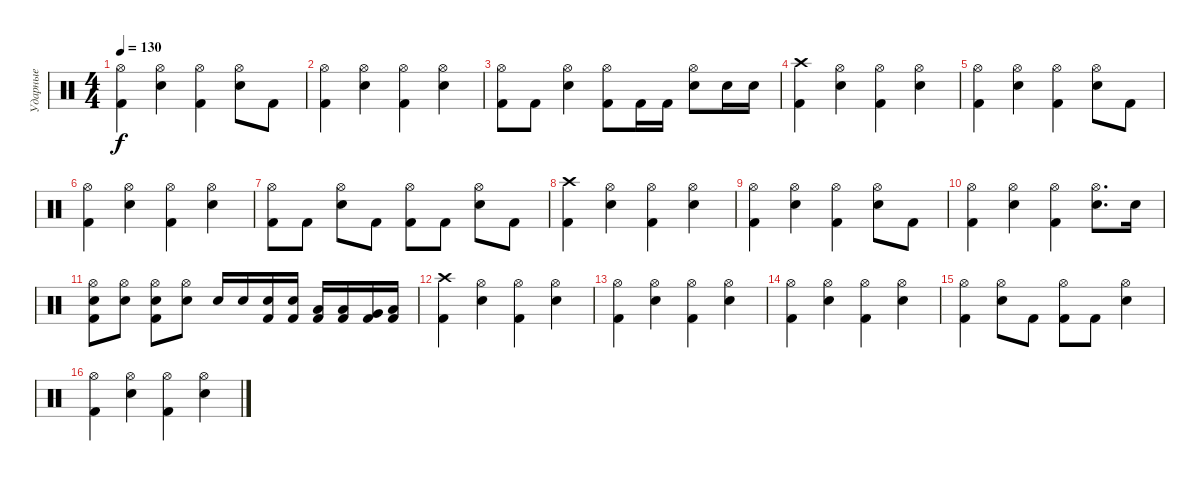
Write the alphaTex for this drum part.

\track ("Ударные" "Ударные") {instrument percussion}
\staff
\articulation defaults
\ts (4 4)
\tempo 130
\clef neutral
\ks c
("Kick (hit) 2" "Hi-Hat (open)").4{dy f} ("Snare (hit) 2" "Hi-Hat (open)").4 ("Kick (hit) 2" "Hi-Hat (open)").4 ("Snare (hit) 2" "Hi-Hat (open)").8 "Kick (hit) 2".8 |
("Kick (hit) 2" "Hi-Hat (open)").4 ("Snare (hit) 2" "Hi-Hat (open)").4 ("Kick (hit) 2" "Hi-Hat (open)").4 ("Snare (hit) 2" "Hi-Hat (open)").4 |
("Kick (hit) 2" "Hi-Hat (open)").8 "Kick (hit) 2".8 ("Snare (hit) 2" "Hi-Hat (open)").4 ("Kick (hit) 2" "Hi-Hat (open)").8 "Kick (hit) 2".16 "Kick (hit) 2".16 ("Snare (hit) 2" "Hi-Hat (open)").8 "Electric Snare (hit)".16 "Electric Snare (hit)".16 |
("Kick (hit) 2" "Crash high (hit)").4 ("Snare (hit) 2" "Hi-Hat (open)").4 ("Kick (hit) 2" "Hi-Hat (open)").4 ("Snare (hit) 2" "Hi-Hat (open)").4 |
("Kick (hit) 2" "Hi-Hat (open)").4 ("Snare (hit) 2" "Hi-Hat (open)").4 ("Kick (hit) 2" "Hi-Hat (open)").4 ("Snare (hit) 2" "Hi-Hat (open)").8 "Kick (hit) 2".8 |
("Kick (hit) 2" "Hi-Hat (open)").4 ("Snare (hit) 2" "Hi-Hat (open)").4 ("Kick (hit) 2" "Hi-Hat (open)").4 ("Snare (hit) 2" "Hi-Hat (open)").4 |
("Kick (hit) 2" "Hi-Hat (open)").8 "Kick (hit) 2".8 ("Snare (hit) 2" "Hi-Hat (open)").8 "Kick (hit) 2".8 ("Kick (hit) 2" "Hi-Hat (open)").8 "Kick (hit) 2".8 ("Snare (hit) 2" "Hi-Hat (open)").8 "Kick (hit) 2".8 |
("Kick (hit) 2" "Crash high (hit)").4 ("Snare (hit) 2" "Hi-Hat (open)").4 ("Kick (hit) 2" "Hi-Hat (open)").4 ("Snare (hit) 2" "Hi-Hat (open)").4 |
("Kick (hit) 2" "Hi-Hat (open)").4 ("Snare (hit) 2" "Hi-Hat (open)").4 ("Kick (hit) 2" "Hi-Hat (open)").4 ("Snare (hit) 2" "Hi-Hat (open)").8 "Kick (hit) 2".8 |
("Kick (hit) 2" "Hi-Hat (open)").4 ("Snare (hit) 2" "Hi-Hat (open)").4 ("Kick (hit) 2" "Hi-Hat (open)").4 ("Snare (hit) 2" "Hi-Hat (open)").8{d} "Snare (hit) 2".16 |
("Kick (hit) 2" "Snare (hit) 2" "Hi-Hat (open)").8 ("Electric Snare (hit)" "Hi-Hat (open)").8 ("Kick (hit) 2" "Snare (hit) 2" "Hi-Hat (open)").8 ("Electric Snare (hit)" "Hi-Hat (open)").8 "Snare (hit) 2".16 "Snare (hit) 2".16 ("Kick (hit) 2" "Electric Snare (hit)").16 ("Kick (hit) 2" "Electric Snare (hit)").16 ("Kick (hit) 2" "Low Tom (hit)").16 ("Kick (hit) 2" "Low Tom (hit)").16 ("Kick (hit) 2" "Very Low Tom (hit)").16 ("Kick (hit) 2" "Low Floor Tom (hit)").16 |
("Kick (hit) 2" "Crash high (hit)").4 ("Snare (hit) 2" "Hi-Hat (open)").4 ("Kick (hit) 2" "Hi-Hat (open)").4 ("Snare (hit) 2" "Hi-Hat (open)").4 |
("Kick (hit) 2" "Hi-Hat (open)").4 ("Snare (hit) 2" "Hi-Hat (open)").4 ("Kick (hit) 2" "Hi-Hat (open)").4 ("Snare (hit) 2" "Hi-Hat (open)").4 |
("Kick (hit) 2" "Hi-Hat (open)").4 ("Snare (hit) 2" "Hi-Hat (open)").4 ("Kick (hit) 2" "Hi-Hat (open)").4 ("Snare (hit) 2" "Hi-Hat (open)").4 |
("Kick (hit) 2" "Hi-Hat (open)").4 ("Snare (hit) 2" "Hi-Hat (open)").8 "Kick (hit) 2".8 ("Kick (hit) 2" "Hi-Hat (open)").8 "Kick (hit) 2".8 ("Snare (hit) 2" "Hi-Hat (open)").4 |
("Kick (hit) 2" "Hi-Hat (open)").4 ("Snare (hit) 2" "Hi-Hat (open)").4 ("Kick (hit) 2" "Hi-Hat (open)").4 ("Snare (hit) 2" "Hi-Hat (open)").4
